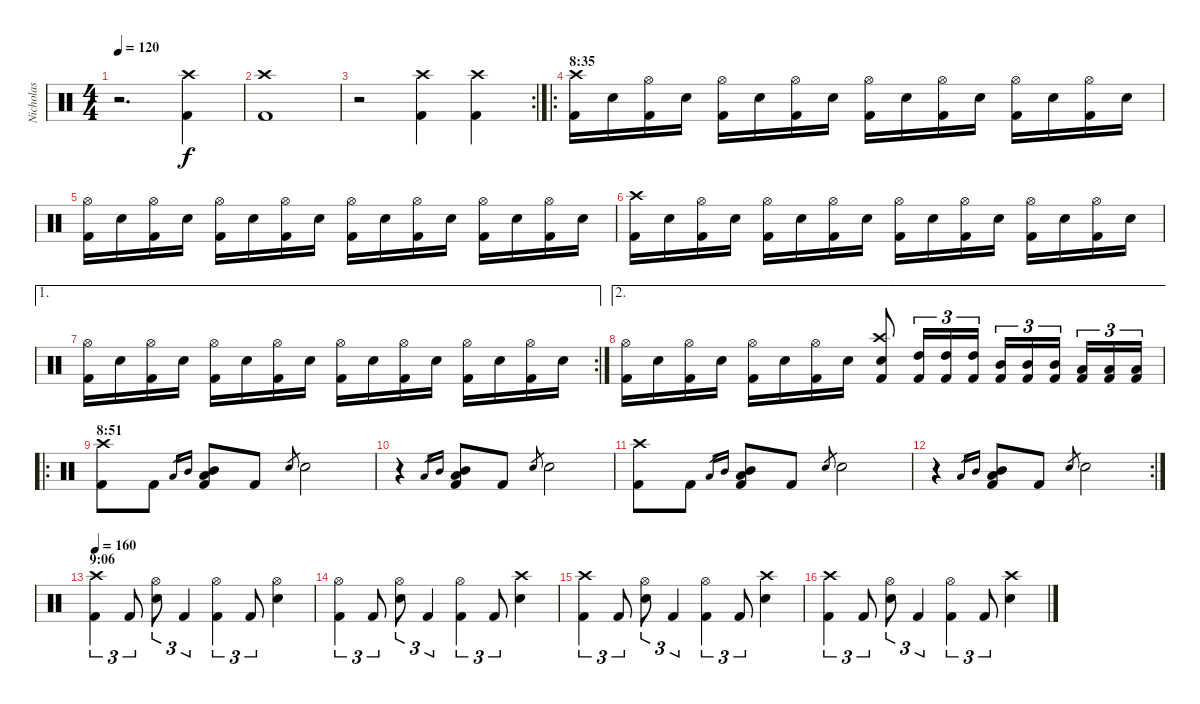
\track ("Nicholas" "Nicholas") {instrument percussion}
\staff {score}
\articulation defaults
\ts (4 4)
\tempo 120
\clef neutral
\ks c
r.2{d dy f} ("Kick (hit) 2" "Crash high (hit)").4 |
("Kick (hit) 2" "Crash high (hit)").1 |
\rc 2
r.2 ("Kick (hit) 2" "Crash high (hit)").4 ("Kick (hit) 2" "Crash high (hit)").4 |
\ro
\section ("" "8:35")
("Kick (hit) 2" "Crash high (hit)").16 "Snare (hit) 2".16 ("Kick (hit) 2" "Hi-Hat (open)").16 "Snare (hit) 2".16 ("Kick (hit) 2" "Hi-Hat (open)").16 "Snare (hit) 2".16 ("Kick (hit) 2" "Hi-Hat (open)").16 "Snare (hit) 2".16 ("Kick (hit) 2" "Hi-Hat (open)").16 "Snare (hit) 2".16 ("Kick (hit) 2" "Hi-Hat (open)").16 "Snare (hit) 2".16 ("Kick (hit) 2" "Hi-Hat (open)").16 "Snare (hit) 2".16 ("Kick (hit) 2" "Hi-Hat (open)").16 "Snare (hit) 2".16 |
("Kick (hit) 2" "Hi-Hat (open)").16 "Snare (hit) 2".16 ("Kick (hit) 2" "Hi-Hat (open)").16 "Snare (hit) 2".16 ("Kick (hit) 2" "Hi-Hat (open)").16 "Snare (hit) 2".16 ("Kick (hit) 2" "Hi-Hat (open)").16 "Snare (hit) 2".16 ("Kick (hit) 2" "Hi-Hat (open)").16 "Snare (hit) 2".16 ("Kick (hit) 2" "Hi-Hat (open)").16 "Snare (hit) 2".16 ("Kick (hit) 2" "Hi-Hat (open)").16 "Snare (hit) 2".16 ("Kick (hit) 2" "Hi-Hat (open)").16 "Snare (hit) 2".16 |
("Kick (hit) 2" "Crash high (hit)").16 "Snare (hit) 2".16 ("Kick (hit) 2" "Hi-Hat (open)").16 "Snare (hit) 2".16 ("Kick (hit) 2" "Hi-Hat (open)").16 "Snare (hit) 2".16 ("Kick (hit) 2" "Hi-Hat (open)").16 "Snare (hit) 2".16 ("Kick (hit) 2" "Hi-Hat (open)").16 "Snare (hit) 2".16 ("Kick (hit) 2" "Hi-Hat (open)").16 "Snare (hit) 2".16 ("Kick (hit) 2" "Hi-Hat (open)").16 "Snare (hit) 2".16 ("Kick (hit) 2" "Hi-Hat (open)").16 "Snare (hit) 2".16 |
\ae 1
\rc 2
("Kick (hit) 2" "Hi-Hat (open)").16 "Snare (hit) 2".16 ("Kick (hit) 2" "Hi-Hat (open)").16 "Snare (hit) 2".16 ("Kick (hit) 2" "Hi-Hat (open)").16 "Snare (hit) 2".16 ("Kick (hit) 2" "Hi-Hat (open)").16 "Snare (hit) 2".16 ("Kick (hit) 2" "Hi-Hat (open)").16 "Snare (hit) 2".16 ("Kick (hit) 2" "Hi-Hat (open)").16 "Snare (hit) 2".16 ("Kick (hit) 2" "Hi-Hat (open)").16 "Snare (hit) 2".16 ("Kick (hit) 2" "Hi-Hat (open)").16 "Snare (hit) 2".16 |
\ae 2
("Kick (hit) 2" "Hi-Hat (open)").16 "Snare (hit) 2".16 ("Kick (hit) 2" "Hi-Hat (open)").16 "Snare (hit) 2".16 ("Kick (hit) 2" "Hi-Hat (open)").16 "Snare (hit) 2".16 ("Kick (hit) 2" "Hi-Hat (open)").16 "Snare (hit) 2".16 ("Kick (hit) 2" "Snare (hit) 2" "Crash high (hit)").8 ("Kick (hit) 2" "High Tom (hit)").16{tu (3 2)} ("Kick (hit) 2" "High Tom (hit)").16{tu (3 2)} ("Kick (hit) 2" "High Tom (hit)").16{tu (3 2)} ("Kick (hit) 2" "Mid Tom (hit)").16{tu (3 2)} ("Kick (hit) 2" "Mid Tom (hit)").16{tu (3 2)} ("Kick (hit) 2" "Mid Tom (hit)").16{tu (3 2)} ("Kick (hit) 2" "Low Tom (hit)").16{tu (3 2)} ("Kick (hit) 2" "Low Tom (hit)").16{tu (3 2)} ("Kick (hit) 2" "Low Tom (hit)").16{tu (3 2)} |
\ro
\section ("" "8:51")
("Kick (hit) 2" "Crash high (hit)").8 "Kick (hit) 2".8 "Low Tom (hit)".16{gr} "Mid Tom (hit)".16{gr} ("Kick (hit) 2" "Low Tom (hit)" "Mid Tom (hit)").8 "Kick (hit) 2".8 "Snare (hit) 2".8{gr} "Snare (hit) 2".2 |
r.4 "Low Tom (hit)".16{gr} "Mid Tom (hit)".16{gr} ("Kick (hit) 2" "Low Tom (hit)" "Mid Tom (hit)").8 "Kick (hit) 2".8 "Snare (hit) 2".8{gr} "Snare (hit) 2".2 |
("Kick (hit) 2" "Crash high (hit)").8 "Kick (hit) 2".8 "Low Tom (hit)".16{gr} "Mid Tom (hit)".16{gr} ("Kick (hit) 2" "Low Tom (hit)" "Mid Tom (hit)").8 "Kick (hit) 2".8 "Snare (hit) 2".8{gr} "Snare (hit) 2".2 |
\rc 2
r.4 "Low Tom (hit)".16{gr} "Mid Tom (hit)".16{gr} ("Kick (hit) 2" "Low Tom (hit)" "Mid Tom (hit)").8 "Kick (hit) 2".8 "Snare (hit) 2".8{gr} "Snare (hit) 2".2 |
\section ("" "9:06")
\tempo 160
("Kick (hit) 2" "Crash high (hit)").4{tu (3 2)} "Kick (hit) 2".8{tu (3 2)} ("Snare (hit) 2" "Hi-Hat (open)").8{tu (3 2)} "Kick (hit) 2".4{tu (3 2)} ("Kick (hit) 2" "Hi-Hat (open)").4{tu (3 2)} "Kick (hit) 2".8{tu (3 2)} ("Snare (hit) 2" "Hi-Hat (open)").4 |
("Kick (hit) 2" "Hi-Hat (open)").4{tu (3 2)} "Kick (hit) 2".8{tu (3 2)} ("Snare (hit) 2" "Hi-Hat (open)").8{tu (3 2)} "Kick (hit) 2".4{tu (3 2)} ("Kick (hit) 2" "Hi-Hat (open)").4{tu (3 2)} "Kick (hit) 2".8{tu (3 2)} ("Snare (hit) 2" "Crash high (hit)").4 |
("Kick (hit) 2" "Crash high (hit)").4{tu (3 2)} "Kick (hit) 2".8{tu (3 2)} ("Snare (hit) 2" "Hi-Hat (open)").8{tu (3 2)} "Kick (hit) 2".4{tu (3 2)} ("Kick (hit) 2" "Hi-Hat (open)").4{tu (3 2)} "Kick (hit) 2".8{tu (3 2)} ("Snare (hit) 2" "Crash high (hit)").4 |
("Kick (hit) 2" "Crash high (hit)").4{tu (3 2)} "Kick (hit) 2".8{tu (3 2)} ("Snare (hit) 2" "Hi-Hat (open)").8{tu (3 2)} "Kick (hit) 2".4{tu (3 2)} ("Kick (hit) 2" "Hi-Hat (open)").4{tu (3 2)} "Kick (hit) 2".8{tu (3 2)} ("Snare (hit) 2" "Crash high (hit)").4
